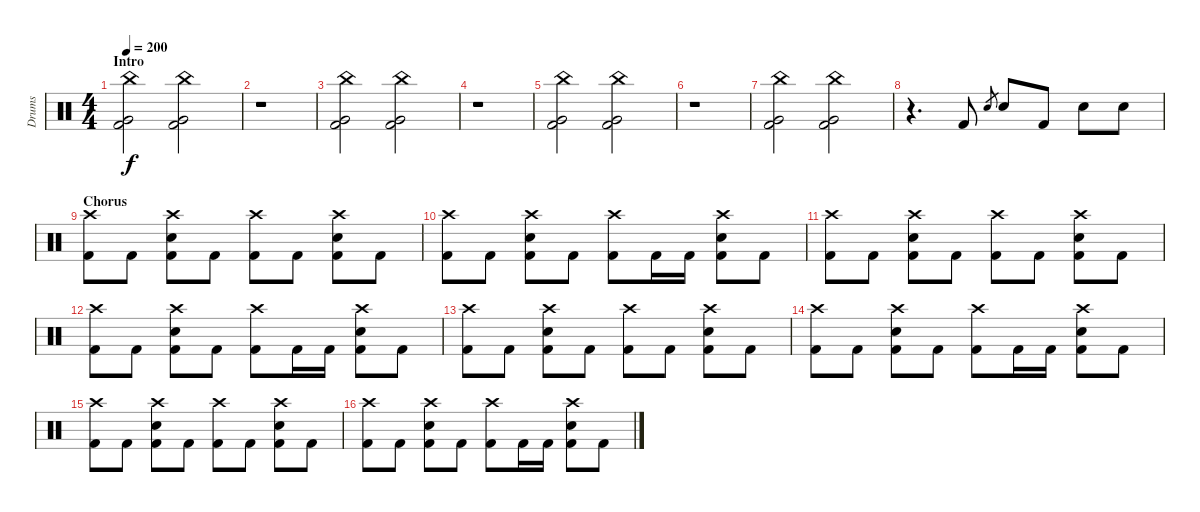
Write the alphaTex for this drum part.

\track ("Drums" "Drums") {instrument percussion}
\staff {score}
\articulation defaults
\ts (4 4)
\section ("" "Intro")
\tempo 200
\clef neutral
\ks c
("China (hit)" "Very Low Tom (hit)" "Kick (hit) 2").2{dy f} ("China (hit)" "Very Low Tom (hit)" "Kick (hit) 2").2 |
r.1 |
("China (hit)" "Very Low Tom (hit)" "Kick (hit) 2").2 ("China (hit)" "Very Low Tom (hit)" "Kick (hit) 2").2 |
r.1 |
("China (hit)" "Very Low Tom (hit)" "Kick (hit) 2").2 ("China (hit)" "Very Low Tom (hit)" "Kick (hit) 2").2 |
r.1 |
("China (hit)" "Very Low Tom (hit)" "Kick (hit) 2").2 ("China (hit)" "Very Low Tom (hit)" "Kick (hit) 2").2 |
r.4{d} "Kick (hit) 2".8 "Electric Snare (hit)".8{gr} "Electric Snare (hit)".8 "Kick (hit) 2".8 "Electric Snare (hit)".8 "Electric Snare (hit)".8 |
\section ("" "Chorus")
("Crash high (hit)" "Kick (hit) 2").8 "Kick (hit) 2".8 ("Crash high (hit)" "Electric Snare (hit)" "Kick (hit) 2").8 "Kick (hit) 2".8 ("Crash high (hit)" "Kick (hit) 2").8 "Kick (hit) 2".8 ("Crash high (hit)" "Electric Snare (hit)" "Kick (hit) 2").8 "Kick (hit) 2".8 |
("Crash high (hit)" "Kick (hit) 2").8 "Kick (hit) 2".8 ("Crash high (hit)" "Electric Snare (hit)" "Kick (hit) 2").8 "Kick (hit) 2".8 ("Crash high (hit)" "Kick (hit) 2").8 "Kick (hit) 2".16 "Kick (hit) 2".16 ("Crash high (hit)" "Electric Snare (hit)" "Kick (hit) 2").8 "Kick (hit) 2".8 |
("Crash high (hit)" "Kick (hit) 2").8 "Kick (hit) 2".8 ("Crash high (hit)" "Electric Snare (hit)" "Kick (hit) 2").8 "Kick (hit) 2".8 ("Crash high (hit)" "Kick (hit) 2").8 "Kick (hit) 2".8 ("Crash high (hit)" "Electric Snare (hit)" "Kick (hit) 2").8 "Kick (hit) 2".8 |
("Crash high (hit)" "Kick (hit) 2").8 "Kick (hit) 2".8 ("Crash high (hit)" "Electric Snare (hit)" "Kick (hit) 2").8 "Kick (hit) 2".8 ("Crash high (hit)" "Kick (hit) 2").8 "Kick (hit) 2".16 "Kick (hit) 2".16 ("Crash high (hit)" "Electric Snare (hit)" "Kick (hit) 2").8 "Kick (hit) 2".8 |
("Crash high (hit)" "Kick (hit) 2").8 "Kick (hit) 2".8 ("Crash high (hit)" "Electric Snare (hit)" "Kick (hit) 2").8 "Kick (hit) 2".8 ("Crash high (hit)" "Kick (hit) 2").8 "Kick (hit) 2".8 ("Crash high (hit)" "Electric Snare (hit)" "Kick (hit) 2").8 "Kick (hit) 2".8 |
("Crash high (hit)" "Kick (hit) 2").8 "Kick (hit) 2".8 ("Crash high (hit)" "Electric Snare (hit)" "Kick (hit) 2").8 "Kick (hit) 2".8 ("Crash high (hit)" "Kick (hit) 2").8 "Kick (hit) 2".16 "Kick (hit) 2".16 ("Crash high (hit)" "Electric Snare (hit)" "Kick (hit) 2").8 "Kick (hit) 2".8 |
("Crash high (hit)" "Kick (hit) 2").8 "Kick (hit) 2".8 ("Crash high (hit)" "Electric Snare (hit)" "Kick (hit) 2").8 "Kick (hit) 2".8 ("Crash high (hit)" "Kick (hit) 2").8 "Kick (hit) 2".8 ("Crash high (hit)" "Electric Snare (hit)" "Kick (hit) 2").8 "Kick (hit) 2".8 |
("Crash high (hit)" "Kick (hit) 2").8 "Kick (hit) 2".8 ("Crash high (hit)" "Electric Snare (hit)" "Kick (hit) 2").8 "Kick (hit) 2".8 ("Crash high (hit)" "Kick (hit) 2").8 "Kick (hit) 2".16 "Kick (hit) 2".16 ("Crash high (hit)" "Electric Snare (hit)" "Kick (hit) 2").8 "Kick (hit) 2".8
